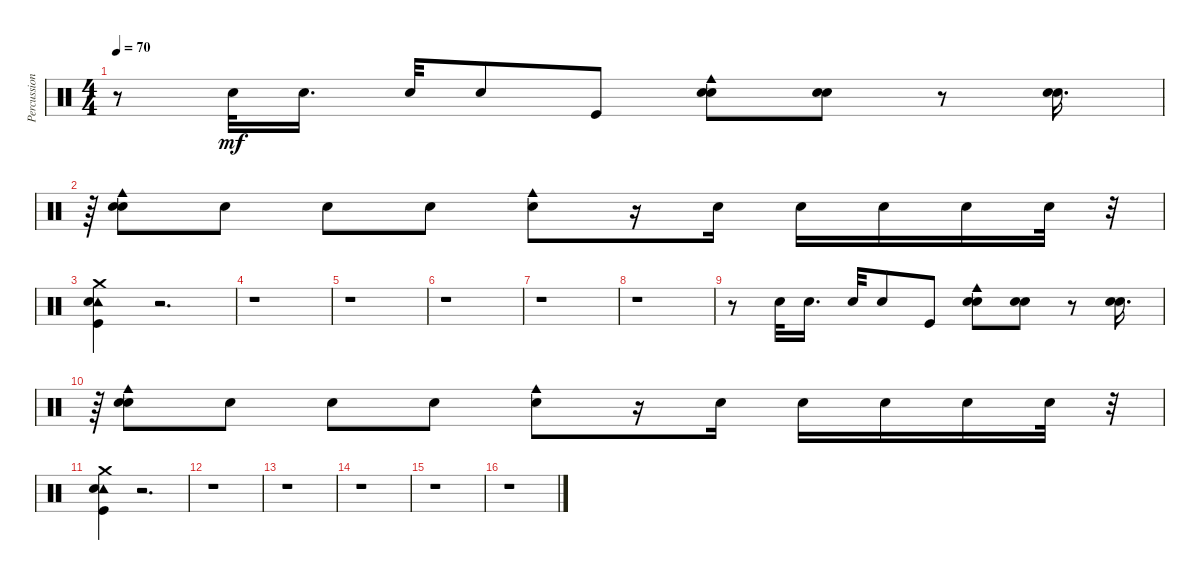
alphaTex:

\track ("Percussions" "Percussion") {instrument percussion}
\staff {score}
\articulation defaults
\ts (4 4)
\tempo 70
\clef neutral
\ks c
r.8{dy mf} "Electric Snare (hit)".32 "Electric Snare (hit)".16{d} "Electric Snare (hit)".32 "Electric Snare (hit)".8 "Kick (hit)".8 ("Electric Snare (hit)" "Cowbell medium (hit)" "Electric Snare (hit)").8 ("Electric Snare (hit)" "Electric Snare (hit)").8 r.8 ("Electric Snare (hit)" "Electric Snare (hit)").16{d} |
r.64{tu (3 2)} ("Electric Snare (hit)" "Cowbell medium (hit)" "Electric Snare (hit)").8 "Electric Snare (hit)".8 "Electric Snare (hit)".8 "Electric Snare (hit)".8 ("Cowbell medium (hit)" "Electric Snare (hit)").8 r.16 "Electric Snare (hit)".16 "Electric Snare (hit)".16 "Electric Snare (hit)".16 "Electric Snare (hit)".16 "Electric Snare (hit)".32 r.32{tu (3 2)} |
("Crash medium (hit)" "Kick (hit)" "Tambourine (hit)" "Electric Snare (hit)").4 r.2{d} |
r.1 |
r.1 |
r.1 |
r.1 |
r.1 |
r.8 "Electric Snare (hit)".32 "Electric Snare (hit)".16{d} "Electric Snare (hit)".32 "Electric Snare (hit)".8 "Kick (hit)".8 ("Electric Snare (hit)" "Cowbell medium (hit)" "Electric Snare (hit)").8 ("Electric Snare (hit)" "Electric Snare (hit)").8 r.8 ("Electric Snare (hit)" "Electric Snare (hit)").16{d} |
r.64{tu (3 2)} ("Electric Snare (hit)" "Cowbell medium (hit)" "Electric Snare (hit)").8 "Electric Snare (hit)".8 "Electric Snare (hit)".8 "Electric Snare (hit)".8 ("Cowbell medium (hit)" "Electric Snare (hit)").8 r.16 "Electric Snare (hit)".16 "Electric Snare (hit)".16 "Electric Snare (hit)".16 "Electric Snare (hit)".16 "Electric Snare (hit)".32 r.32{tu (3 2)} |
("Crash medium (hit)" "Kick (hit)" "Tambourine (hit)" "Electric Snare (hit)").4 r.2{d} |
r.1 |
r.1 |
r.1 |
r.1 |
r.1
